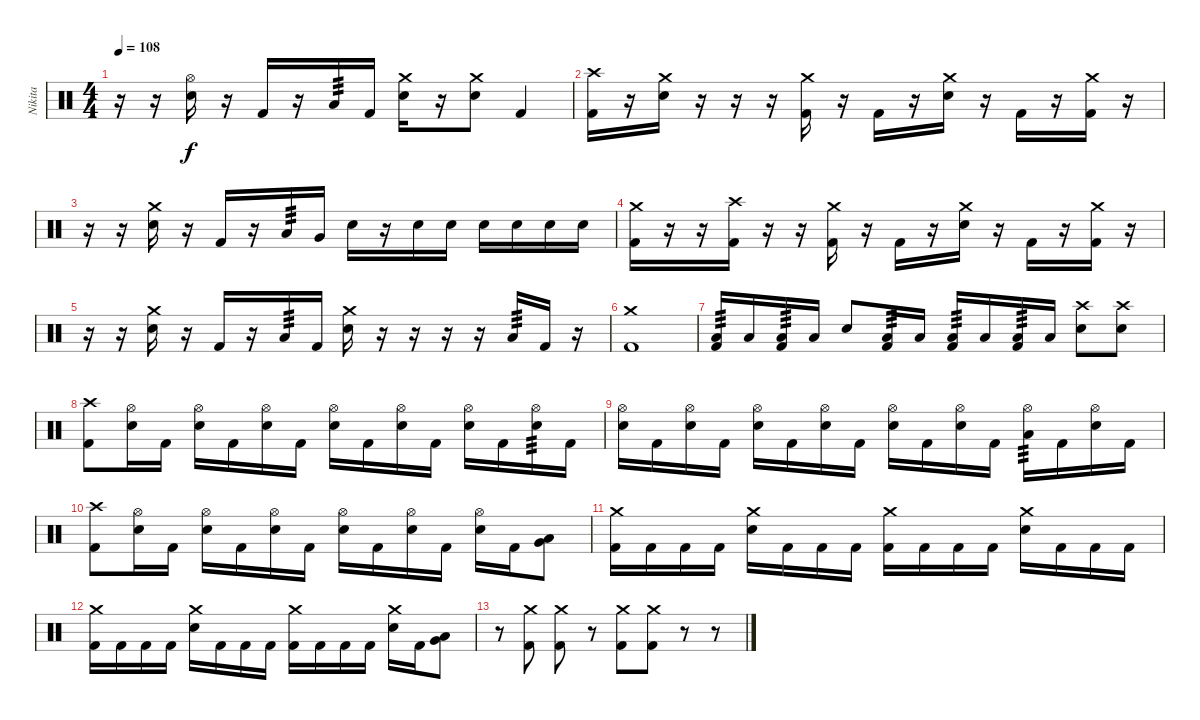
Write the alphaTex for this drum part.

\track ("Nikita" "Nikita") {instrument percussion}
\staff {score}
\articulation defaults
\ts (4 4)
\tempo 108
\clef neutral
\ks c
r.16{dy f} r.16 ("Hi-Hat (open)" "Electric Snare (hit)").16 r.16 "Kick (hit) 2".16 r.16 "Low Tom (hit)".16{tp 3} "Kick (hit) 2".16 ("Crash medium (hit)" "Electric Snare (hit)").16 r.16 ("Crash medium (hit)" "Electric Snare (hit)").8 "Kick (hit) 2".4 |
("Crash high (hit)" "Kick (hit) 2").16 r.16 ("Crash medium (hit)" "Electric Snare (hit)").16 r.16 r.16 r.16 ("Crash medium (hit)" "Kick (hit) 2").16 r.16 "Kick (hit) 2".16 r.16 ("Crash medium (hit)" "Electric Snare (hit)").16 r.16 "Kick (hit) 2".16 r.16 ("Crash medium (hit)" "Kick (hit) 2").16 r.16 |
r.16 r.16 ("Crash medium (hit)" "Electric Snare (hit)").16 r.16 "Kick (hit) 2".16 r.16 "Low Tom (hit)".16{tp 3} "Very Low Tom (hit)".16 "Electric Snare (hit)".16 r.16 "Electric Snare (hit)".16 "Electric Snare (hit)".16 "Electric Snare (hit)".16 "Electric Snare (hit)".16 "Electric Snare (hit)".16 "Electric Snare (hit)".16 |
("Crash medium (hit)" "Kick (hit) 2").16 r.16 r.16 ("Crash high (hit)" "Kick (hit) 2").16 r.16 r.16 ("Crash medium (hit)" "Kick (hit) 2").16 r.16 "Kick (hit) 2".16 r.16 ("Crash medium (hit)" "Electric Snare (hit)").16 r.16 "Kick (hit) 2".16 r.16 ("Crash medium (hit)" "Kick (hit) 2").16 r.16 |
r.16 r.16 ("Crash medium (hit)" "Electric Snare (hit)").16 r.16 "Kick (hit) 2".16 r.16 "Low Tom (hit)".16{tp 3} "Kick (hit) 2".16 ("Crash medium (hit)" "Electric Snare (hit)").16 r.16 r.16 r.16 r.16 "Low Tom (hit)".16{tp 3} "Kick (hit) 2".16 r.16 |
("Crash medium (hit)" "Kick (hit) 2").1 |
("Low Tom (hit)" "Kick (hit) 2").16{tp 3} "Low Tom (hit)".16 ("Low Tom (hit)" "Kick (hit) 2").16{tp 3} "Low Tom (hit)".16 "Electric Snare (hit)".8 ("Low Tom (hit)" "Kick (hit) 2").16{tp 3} "Low Tom (hit)".16 ("Low Tom (hit)" "Kick (hit) 2").16{tp 3} "Low Tom (hit)".16 ("Low Tom (hit)" "Kick (hit) 2").16{tp 3} "Low Tom (hit)".16 ("Crash high (hit)" "Electric Snare (hit)").8 ("Crash high (hit)" "Electric Snare (hit)").8 |
("Crash high (hit)" "Kick (hit) 2").8 ("Hi-Hat (open)" "Electric Snare (hit)").16 "Kick (hit) 2".16 ("Hi-Hat (open)" "Electric Snare (hit)").16 "Kick (hit) 2".16 ("Hi-Hat (open)" "Electric Snare (hit)").16 "Kick (hit) 2".16 ("Hi-Hat (open)" "Electric Snare (hit)").16 "Kick (hit) 2".16 ("Hi-Hat (open)" "Electric Snare (hit)").16 "Kick (hit) 2".16 ("Hi-Hat (open)" "Electric Snare (hit)").16 "Kick (hit) 2".16 ("Hi-Hat (open)" "Electric Snare (hit)").16{tp 3} "Kick (hit) 2".16 |
("Hi-Hat (open)" "Electric Snare (hit)").16 "Kick (hit) 2".16 ("Hi-Hat (open)" "Electric Snare (hit)").16 "Kick (hit) 2".16 ("Hi-Hat (open)" "Electric Snare (hit)").16 "Kick (hit) 2".16 ("Hi-Hat (open)" "Electric Snare (hit)").16 "Kick (hit) 2".16 ("Hi-Hat (open)" "Electric Snare (hit)").16 "Kick (hit) 2".16 ("Hi-Hat (open)" "Electric Snare (hit)").16 "Kick (hit) 2".16 ("Hi-Hat (open)" "Low Tom (hit)").16{tp 3} "Kick (hit) 2".16 ("Hi-Hat (open)" "Electric Snare (hit)").16 "Kick (hit) 2".16 |
("Crash high (hit)" "Kick (hit) 2").8 ("Hi-Hat (open)" "Electric Snare (hit)").16 "Kick (hit) 2".16 ("Hi-Hat (open)" "Electric Snare (hit)").16 "Kick (hit) 2".16 ("Hi-Hat (open)" "Electric Snare (hit)").16 "Kick (hit) 2".16 ("Hi-Hat (open)" "Electric Snare (hit)").16 "Kick (hit) 2".16 ("Hi-Hat (open)" "Electric Snare (hit)").16 "Kick (hit) 2".16 ("Hi-Hat (open)" "Electric Snare (hit)").16 "Kick (hit) 2".16 ("Very Low Tom (hit)" "Low Tom (hit)").8 |
("Crash medium (hit)" "Kick (hit) 2").16 "Kick (hit) 2".16 "Kick (hit) 2".16 "Kick (hit) 2".16 ("Crash medium (hit)" "Electric Snare (hit)").16 "Kick (hit) 2".16 "Kick (hit) 2".16 "Kick (hit) 2".16 ("Crash medium (hit)" "Kick (hit) 2").16 "Kick (hit) 2".16 "Kick (hit) 2".16 "Kick (hit) 2".16 ("Crash medium (hit)" "Electric Snare (hit)").16 "Kick (hit) 2".16 "Kick (hit) 2".16 "Kick (hit) 2".16 |
("Crash medium (hit)" "Kick (hit) 2").16 "Kick (hit) 2".16 "Kick (hit) 2".16 "Kick (hit) 2".16 ("Crash medium (hit)" "Electric Snare (hit)").16 "Kick (hit) 2".16 "Kick (hit) 2".16 "Kick (hit) 2".16 ("Crash medium (hit)" "Kick (hit) 2").16 "Kick (hit) 2".16 "Kick (hit) 2".16 "Kick (hit) 2".16 ("Crash medium (hit)" "Electric Snare (hit)").16 "Kick (hit) 2".16 ("Very Low Tom (hit)" "Low Tom (hit)").8 |
r.8 ("Crash medium (hit)" "Kick (hit) 2").8 ("Crash medium (hit)" "Kick (hit) 2").8 r.8 ("Crash medium (hit)" "Kick (hit) 2").8 ("Crash medium (hit)" "Kick (hit) 2").8 r.8 r.8
